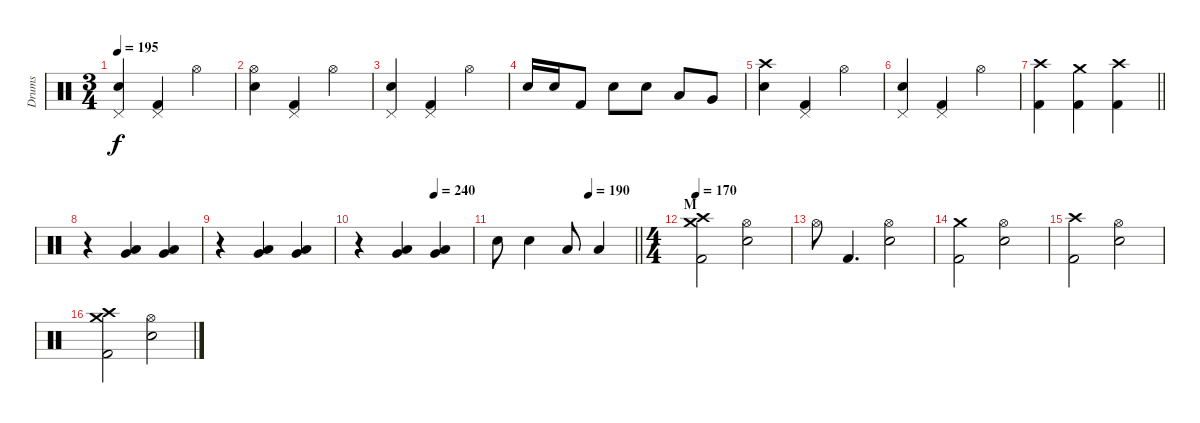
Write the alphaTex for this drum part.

\track ("Drums" "Drums") {instrument percussion}
\staff {score}
\articulation defaults
\ts (3 4)
\tempo 195
\clef neutral
\ks c
("Pedal Hi-Hat (hit)" "Electric Snare (hit)").4{dy f} ("Pedal Hi-Hat (hit)" "Kick (hit) 2").4 "Hi-Hat (open)".4 |
("Hi-Hat (open)" "Electric Snare (hit)").4 ("Pedal Hi-Hat (hit)" "Kick (hit) 2").4 "Hi-Hat (open)".4 |
("Pedal Hi-Hat (hit)" "Electric Snare (hit)").4 ("Pedal Hi-Hat (hit)" "Kick (hit) 2").4 "Hi-Hat (open)".4 |
"Electric Snare (hit)".16 "Electric Snare (hit)".16 "Kick (hit) 2".8 "Electric Snare (hit)".8 "Electric Snare (hit)".8 "Low Tom (hit)".8 "Very Low Tom (hit)".8 |
("Crash high (hit)" "Electric Snare (hit)").4 ("Pedal Hi-Hat (hit)" "Kick (hit) 2").4 "Hi-Hat (open)".4 |
("Pedal Hi-Hat (hit)" "Electric Snare (hit)").4 ("Pedal Hi-Hat (hit)" "Kick (hit) 2").4 "Hi-Hat (open)".4 |
\barLineRight lightlight
("Crash high (hit)" "Kick (hit) 2").4 ("Crash medium (hit)" "Kick (hit) 2").4 ("Crash high (hit)" "Kick (hit) 2").4 |
\section ("" "")
r.4 ("Very Low Tom (hit)" "Low Floor Tom (hit)").4 ("Very Low Tom (hit)" "Low Floor Tom (hit)").4 |
r.4 ("Very Low Tom (hit)" "Low Floor Tom (hit)").4 ("Very Low Tom (hit)" "Low Floor Tom (hit)").4 |
\tempo (240 0.6666666666666666)
r.4 ("Very Low Tom (hit)" "Low Floor Tom (hit)").4 ("Very Low Tom (hit)" "Low Floor Tom (hit)").4 |
\tempo (190 0.6666666666666666)
\barLineRight lightlight "Electric Snare (hit)".8 "Electric Snare (hit)".4 "Low Tom (hit)".8 "Low Tom (hit)".4
|
\ts (4 4)
\section ("" "M")
\tempo 170
("Crash medium (hit)" "Crash high (hit)" "Kick (hit) 2").2 ("Hi-Hat (open)" "Electric Snare (hit)").2 |
"Hi-Hat (open)".8 "Kick (hit) 2".4{d} ("Hi-Hat (open)" "Electric Snare (hit)").2 |
("Crash medium (hit)" "Kick (hit) 2").2 ("Hi-Hat (open)" "Electric Snare (hit)").2 |
("Crash high (hit)" "Kick (hit) 2").2 ("Hi-Hat (open)" "Electric Snare (hit)").2 |
("Crash medium (hit)" "Crash high (hit)" "Kick (hit) 2").2 ("Hi-Hat (open)" "Electric Snare (hit)").2
